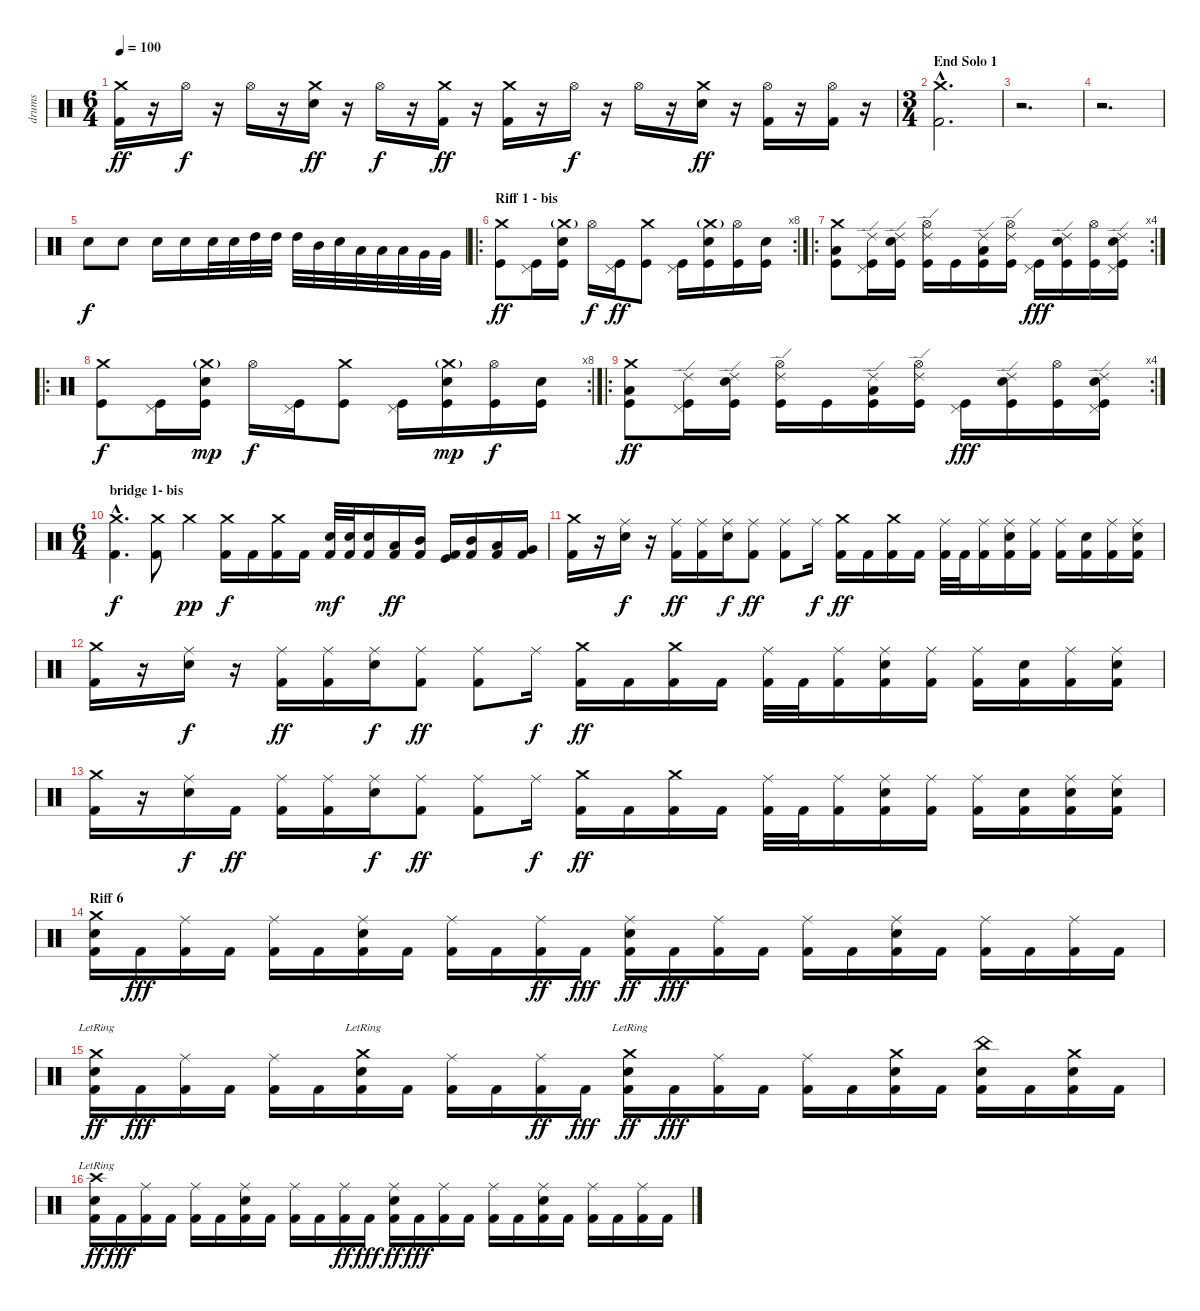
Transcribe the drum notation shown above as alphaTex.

\track ("drums" "drums") {instrument percussion}
\staff {score}
\articulation defaults
\ts (6 4)
\tempo 100
\clef neutral
\ks c
("Crash medium (hit)" "Kick (hit) 2").16{dy ff} r.16 "Hi-Hat (open)".16{dy f} r.16 "Hi-Hat (open)".16 r.16 ("Crash medium (hit)" "Electric Snare (hit)").16{dy ff} r.16 "Hi-Hat (open)".16{dy f} r.16 ("Crash medium (hit)" "Kick (hit) 2").16{dy ff} r.16 ("Crash medium (hit)" "Kick (hit) 2").16 r.16 "Hi-Hat (open)".16{dy f} r.16 "Hi-Hat (open)".16 r.16 ("Crash medium (hit)" "Electric Snare (hit)").16{dy ff} r.16 ("Hi-Hat (open)" "Kick (hit) 2").16 r.16 ("Hi-Hat (open)" "Kick (hit) 2").16 r.16 |
\ts (3 4)
\section ("" "End Solo 1")
("Crash medium (hit)"{hac} "Kick (hit) 2"{hac}).2{d} |
r.2{d} |
r.2{d} |
"Electric Snare (hit)".8{dy f} "Electric Snare (hit)".8 "Electric Snare (hit)".16 "Electric Snare (hit)".16 "Electric Snare (hit)".32 "Electric Snare (hit)".32 "High Tom (hit)".32 "High Tom (hit)".32 "High Tom (hit)".32 "Mid Tom (hit)".32 "Electric Snare (hit)".32 "Low Tom (hit)".32 "Low Tom (hit)".32 "Low Tom (hit)".32 "Very Low Tom (hit)".32 "Very Low Tom (hit)".32 |
\ro
\rc 8
\section ("" "Riff 1 - bis")
("Crash medium (hit)" "Kick (hit)").8{dy ff} ("Pedal Hi-Hat (hit)" "Kick (hit)").16 ("Crash medium (hit)"{g} "Snare (hit) 2" "Kick (hit)").16 "Hi-Hat (open)".16{dy f} ("Pedal Hi-Hat (hit)" "Kick (hit)").16{dy ff} ("Crash medium (hit)" "Kick (hit)").8 ("Pedal Hi-Hat (hit)" "Kick (hit)").16 ("Crash medium (hit)"{g} "Snare (hit) 2" "Kick (hit)").16 ("Hi-Hat (open)" "Kick (hit)").16 ("Snare (hit) 2" "Kick (hit)").16 |
\ro
\rc 4
("Crash medium (hit)" "Low Floor Tom (hit)" "Kick (hit)").8 ("Ride (edge) 2" "Pedal Hi-Hat (hit)" "Kick (hit)").16 ("Ride (edge) 2" "Snare (hit) 2" "Kick (hit)").16 ("Ride (edge) 2" "Hi-Hat (open)" "Kick (hit)").16 "Kick (hit)".16 ("Ride (edge) 2" "Low Floor Tom (hit)" "Kick (hit)").16 ("Ride (edge) 2" "Hi-Hat (open)" "Kick (hit)").16 ("Pedal Hi-Hat (hit)" "Kick (hit)").16{dy fff} ("Ride (edge) 2" "Snare (hit) 2" "Kick (hit)").16 ("Hi-Hat (open)" "Kick (hit)").16 ("Ride (edge) 2" "Pedal Hi-Hat (hit)" "Snare (hit) 2" "Kick (hit)").16 |
\ro
\rc 8
("Crash medium (hit)" "Kick (hit)").8{dy f} ("Pedal Hi-Hat (hit)" "Kick (hit)").16 ("Crash medium (hit)"{g} "Snare (hit) 2" "Kick (hit)").16{dy mp} "Hi-Hat (open)".16{dy f} ("Pedal Hi-Hat (hit)" "Kick (hit)").16 ("Crash medium (hit)" "Kick (hit)").8 ("Pedal Hi-Hat (hit)" "Kick (hit)").16 ("Crash medium (hit)"{g} "Snare (hit) 2" "Kick (hit)").16{dy mp} ("Hi-Hat (open)" "Kick (hit)").16{dy f} ("Snare (hit) 2" "Kick (hit)").16 |
\ro
\rc 4
("Crash medium (hit)" "Low Floor Tom (hit)" "Kick (hit)").8{dy ff} ("Ride (edge) 2" "Pedal Hi-Hat (hit)" "Kick (hit)").16 ("Ride (edge) 2" "Snare (hit) 2" "Kick (hit)").16 ("Ride (edge) 2" "Hi-Hat (open)" "Kick (hit)").16 "Kick (hit)".16 ("Ride (edge) 2" "Low Floor Tom (hit)" "Kick (hit)").16 ("Ride (edge) 2" "Hi-Hat (open)" "Kick (hit)").16 ("Pedal Hi-Hat (hit)" "Kick (hit)").16{dy fff} ("Ride (edge) 2" "Snare (hit) 2" "Kick (hit)").16 ("Hi-Hat (open)" "Kick (hit)").16 ("Ride (edge) 2" "Pedal Hi-Hat (hit)" "Snare (hit) 2" "Kick (hit)").16 |
\ts (6 4)
\section ("" "bridge 1- bis ")
("Crash medium (hit)"{hac} "Kick (hit) 2"{hac}).4{d dy f} ("Crash medium (hit)" "Kick (hit) 2").8 "Crash medium (hit)".4{dy pp} ("Crash medium (hit)" "Kick (hit) 2").16{dy f} "Kick (hit) 2".16 ("Crash medium (hit)" "Kick (hit) 2").16 "Kick (hit) 2".16 ("Electric Snare (hit)" "Kick (hit) 2").32{dy mf} ("Snare (hit) 2" "Kick (hit) 2").32 ("Snare (hit) 2" "Kick (hit) 2").16 ("Low Tom (hit)" "Kick (hit) 2").16{dy ff} ("Mid Tom (hit)" "Kick (hit) 2").16 ("Kick (hit)" "Kick (hit) 2").16 ("Mid Tom (hit)" "Kick (hit) 2").16 ("Low Tom (hit)" "Kick (hit) 2").16 ("Very Low Tom (hit)" "Kick (hit) 2").16 |
("Crash medium (hit)" "Kick (hit) 2").16 r.16 ("Ride (middle)" "Electric Snare (hit)").16{dy f} r.16 ("Ride (middle)" "Kick (hit) 2").16{dy ff} ("Ride (middle)" "Kick (hit) 2").16 ("Ride (middle)" "Electric Snare (hit)").16{dy f} ("Ride (middle)" "Kick (hit) 2").8{dy ff} ("Ride (middle)" "Kick (hit) 2").8 "Ride (middle)".16{dy f} ("Crash medium (hit)" "Kick (hit) 2").16{dy ff} "Kick (hit) 2".16 ("Crash medium (hit)" "Kick (hit) 2").16 "Kick (hit) 2".16 ("Ride (middle)" "Kick (hit) 2").32 "Kick (hit) 2".32 ("Ride (middle)" "Kick (hit) 2").16 ("Ride (middle)" "Electric Snare (hit)" "Kick (hit) 2").16 ("Ride (middle)" "Kick (hit) 2").16 ("Ride (middle)" "Kick (hit) 2").16 ("Electric Snare (hit)" "Kick (hit) 2").16 ("Ride (middle)" "Kick (hit) 2").16 ("Ride (middle)" "Snare (hit) 2" "Kick (hit) 2").16 |
("Crash medium (hit)" "Kick (hit) 2").16 r.16 ("Ride (middle)" "Electric Snare (hit)").16{dy f} r.16 ("Ride (middle)" "Kick (hit) 2").16{dy ff} ("Ride (middle)" "Kick (hit) 2").16 ("Ride (middle)" "Electric Snare (hit)").16{dy f} ("Ride (middle)" "Kick (hit) 2").8{dy ff} ("Ride (middle)" "Kick (hit) 2").8 "Ride (middle)".16{dy f} ("Crash medium (hit)" "Kick (hit) 2").16{dy ff} "Kick (hit) 2".16 ("Crash medium (hit)" "Kick (hit) 2").16 "Kick (hit) 2".16 ("Ride (middle)" "Kick (hit) 2").32 "Kick (hit) 2".32 ("Ride (middle)" "Kick (hit) 2").16 ("Ride (middle)" "Electric Snare (hit)" "Kick (hit) 2").16 ("Ride (middle)" "Kick (hit) 2").16 ("Ride (middle)" "Kick (hit) 2").16 ("Electric Snare (hit)" "Kick (hit) 2").16 ("Ride (middle)" "Kick (hit) 2").16 ("Ride (middle)" "Snare (hit) 2" "Kick (hit) 2").16 |
("Crash medium (hit)" "Kick (hit) 2").16 r.16 ("Ride (middle)" "Electric Snare (hit)").16{dy f} "Kick (hit) 2".16{dy ff} ("Ride (middle)" "Kick (hit) 2").16 ("Ride (middle)" "Kick (hit) 2").16 ("Ride (middle)" "Electric Snare (hit)").16{dy f} ("Ride (middle)" "Kick (hit) 2").8{dy ff} ("Ride (middle)" "Kick (hit) 2").8 "Ride (middle)".16{dy f} ("Crash medium (hit)" "Kick (hit) 2").16{dy ff} "Kick (hit) 2".16 ("Crash medium (hit)" "Kick (hit) 2").16 "Kick (hit) 2".16 ("Ride (middle)" "Kick (hit) 2").32 "Kick (hit) 2".32 ("Ride (middle)" "Kick (hit) 2").16 ("Ride (middle)" "Electric Snare (hit)" "Kick (hit) 2").16 ("Ride (middle)" "Kick (hit) 2").16 ("Ride (middle)" "Kick (hit) 2").16 ("Electric Snare (hit)" "Kick (hit) 2").16 ("Ride (middle)" "Electric Snare (hit)" "Kick (hit) 2").16 ("Ride (middle)" "Snare (hit) 2" "Kick (hit) 2").16 |
\section ("" "Riff 6")
("Crash medium (hit)" "Electric Snare (hit)" "Kick (hit) 2").16 "Kick (hit) 2".16{dy fff} ("Ride (middle)" "Kick (hit) 2").16 "Kick (hit) 2".16 ("Ride (middle)" "Kick (hit) 2").16 "Kick (hit) 2".16 ("Ride (middle)" "Electric Snare (hit)" "Kick (hit) 2").16 "Kick (hit) 2".16 ("Ride (middle)" "Kick (hit) 2").16 "Kick (hit) 2".16 ("Ride (middle)" "Kick (hit) 2").16{dy ff} "Kick (hit) 2".16{dy fff} ("Ride (middle)" "Electric Snare (hit)" "Kick (hit) 2").16{dy ff} "Kick (hit) 2".16{dy fff} ("Ride (middle)" "Kick (hit) 2").16 "Kick (hit) 2".16 ("Ride (middle)" "Kick (hit) 2").16 "Kick (hit) 2".16 ("Ride (middle)" "Electric Snare (hit)" "Kick (hit) 2").16 "Kick (hit) 2".16 ("Ride (middle)" "Kick (hit) 2").16 "Kick (hit) 2".16 ("Ride (middle)" "Kick (hit) 2").16 "Kick (hit) 2".16 |
("Crash medium (hit)"{lr} "Electric Snare (hit)" "Kick (hit) 2").16{dy ff} "Kick (hit) 2".16{dy fff} ("Ride (middle)" "Kick (hit) 2").16 "Kick (hit) 2".16 ("Ride (middle)" "Kick (hit) 2").16 "Kick (hit) 2".16 ("Crash medium (hit)"{lr} "Electric Snare (hit)" "Kick (hit) 2").16 "Kick (hit) 2".16 ("Ride (middle)" "Kick (hit) 2").16 "Kick (hit) 2".16 ("Ride (middle)" "Kick (hit) 2").16{dy ff} "Kick (hit) 2".16{dy fff} ("Crash medium (hit)"{lr} "Electric Snare (hit)" "Kick (hit) 2").16{dy ff} "Kick (hit) 2".16{dy fff} ("Ride (middle)" "Kick (hit) 2").16 "Kick (hit) 2".16 ("Ride (middle)" "Kick (hit) 2").16 "Kick (hit) 2".16 ("Crash medium (hit)" "Electric Snare (hit)" "Kick (hit) 2").16 "Kick (hit) 2".16 ("China (hit)" "Electric Snare (hit)" "Kick (hit) 2").16 "Kick (hit) 2".16 ("Crash medium (hit)" "Electric Snare (hit)" "Kick (hit) 2").16 "Kick (hit) 2".16 |
("Crash high (hit)"{lr} "Electric Snare (hit)" "Kick (hit) 2").16{dy ff} "Kick (hit) 2".16{dy fff} ("Ride (middle)" "Kick (hit) 2").16 "Kick (hit) 2".16 ("Ride (middle)" "Kick (hit) 2").16 "Kick (hit) 2".16 ("Ride (middle)" "Electric Snare (hit)" "Kick (hit) 2").16 "Kick (hit) 2".16 ("Ride (middle)" "Kick (hit) 2").16 "Kick (hit) 2".16 ("Ride (middle)" "Kick (hit) 2").16{dy ff} "Kick (hit) 2".16{dy fff} ("Ride (middle)" "Electric Snare (hit)" "Kick (hit) 2").16{dy ff} "Kick (hit) 2".16{dy fff} ("Ride (middle)" "Kick (hit) 2").16 "Kick (hit) 2".16 ("Ride (middle)" "Kick (hit) 2").16 "Kick (hit) 2".16 ("Ride (middle)" "Electric Snare (hit)" "Kick (hit) 2").16 "Kick (hit) 2".16 ("Ride (middle)" "Kick (hit) 2").16 "Kick (hit) 2".16 ("Ride (middle)" "Kick (hit) 2").16 "Kick (hit) 2".16
